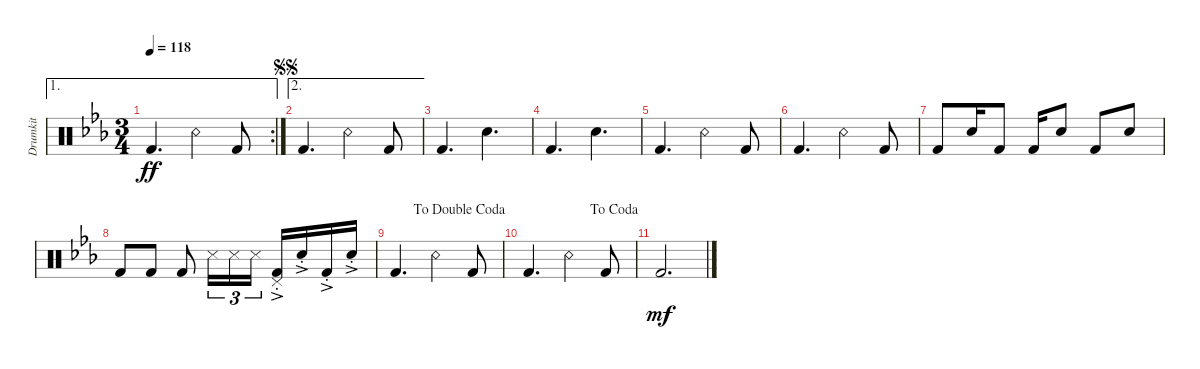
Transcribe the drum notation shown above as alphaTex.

\track ("Drumkit" "Drumkit") {instrument percussion}
\staff {score}
\articulation defaults
\ae 1
\rc 2
\ts (3 4)
\tempo 118
\clef neutral
\ks cminor "Kick (hit) 2".4{d dy ff} "Snare (rim shot)".4 "Kick (hit) 2".8
|
\ae 2
\jump segnosegno "Kick (hit) 2".4{d} "Snare (rim shot)".4 "Kick (hit) 2".8
|
"Kick (hit) 2".4{d} "Snare (hit) 2".4{d} |
"Kick (hit) 2".4{d} "Snare (hit) 2".4{d} |
"Kick (hit) 2".4{d} "Snare (rim shot)".4 "Kick (hit) 2".8 |
"Kick (hit) 2".4{d} "Snare (rim shot)".4 "Kick (hit) 2".8 |
"Kick (hit) 2".8 "Snare (hit) 2".16 "Kick (hit) 2".8 "Kick (hit) 2".16 "Snare (hit) 2".8 "Kick (hit) 2".8 "Snare (hit) 2".8 |
"Kick (hit) 2".8 "Kick (hit) 2".8 "Kick (hit) 2".8 "Snare (side stick) 3".16{tu (3 2)} "Snare (side stick) 3".16{tu (3 2)} "Snare (side stick) 3".16{tu (3 2)} ("Pedal Hi-Hat (hit)"{ac st} "Kick (hit) 2"{ac st}).16 "Snare (hit) 2"{ac st}.16 "Kick (hit) 2"{ac st}.16 "Snare (hit) 2"{ac st}.16 |
\jump dadoublecoda "Kick (hit) 2".4{d} "Snare (rim shot)".4 "Kick (hit) 2".8
|
\jump dacoda "Kick (hit) 2".4{d} "Snare (rim shot)".4 "Kick (hit) 2".8
|
"Kick (hit) 2".2{d dy mf}
